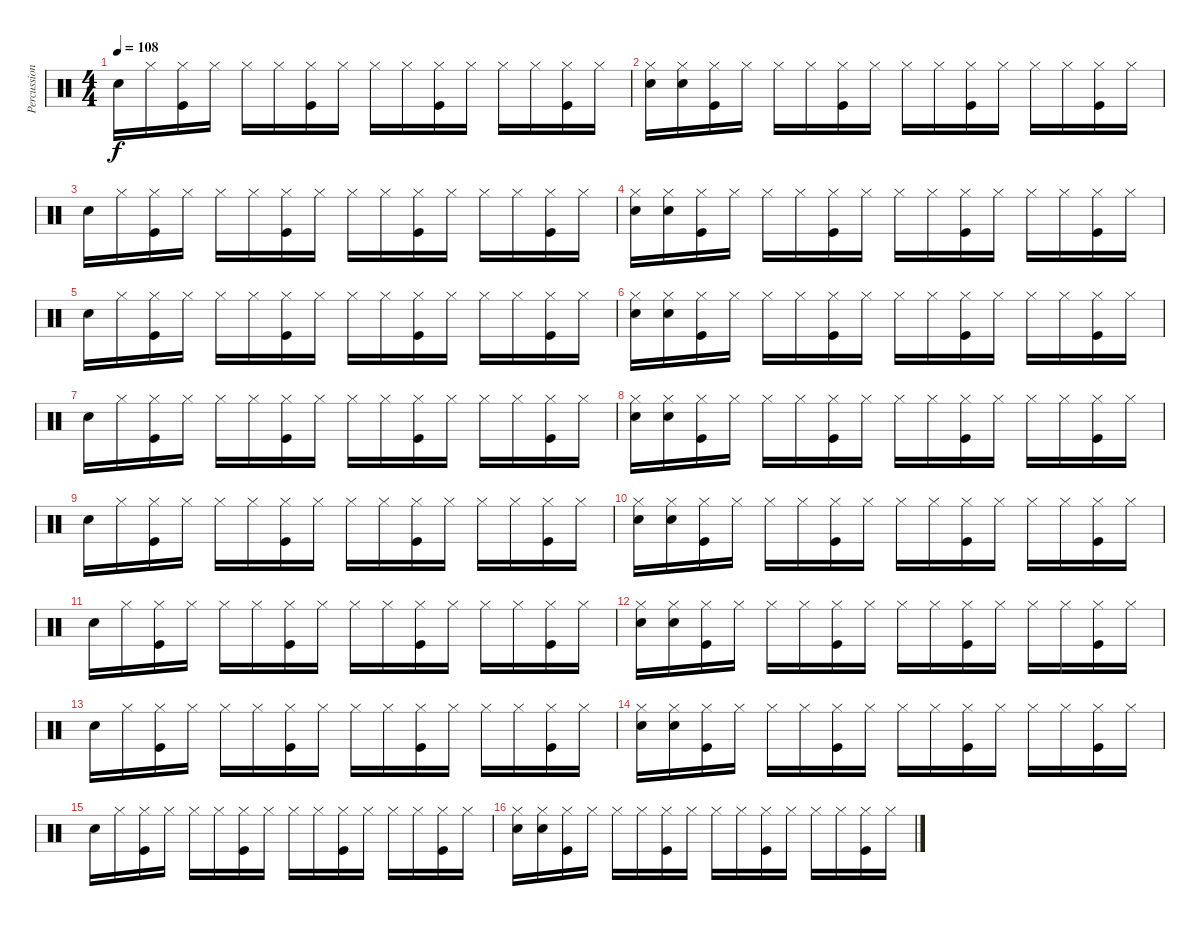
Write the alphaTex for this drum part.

\track ("Percussions" "Percussion") {instrument percussion}
\staff {score}
\articulation defaults
\ts (4 4)
\tempo 108
\clef neutral
\ks c "Electric Snare (hit)".16{dy f} "Hi-Hat (closed)".16
("Hi-Hat (closed)" "Kick (hit)").16 "Hi-Hat (closed)".16 "Hi-Hat (closed)".16 "Hi-Hat (closed)".16 ("Hi-Hat (closed)" "Kick (hit)").16 "Hi-Hat (closed)".16 "Hi-Hat (closed)".16 "Hi-Hat (closed)".16 ("Hi-Hat (closed)" "Kick (hit)").16 "Hi-Hat (closed)".16 "Hi-Hat (closed)".16 "Hi-Hat (closed)".16 ("Hi-Hat (closed)" "Kick (hit)").16 "Hi-Hat (closed)".16 |
("Hi-Hat (closed)" "Electric Snare (hit)").16 ("Hi-Hat (closed)" "Electric Snare (hit)").16 ("Hi-Hat (closed)" "Kick (hit)").16 "Hi-Hat (closed)".16 "Hi-Hat (closed)".16 "Hi-Hat (closed)".16 ("Hi-Hat (closed)" "Kick (hit)").16 "Hi-Hat (closed)".16 "Hi-Hat (closed)".16 "Hi-Hat (closed)".16 ("Hi-Hat (closed)" "Kick (hit)").16 "Hi-Hat (closed)".16 "Hi-Hat (closed)".16 "Hi-Hat (closed)".16 ("Hi-Hat (closed)" "Kick (hit)").16 "Hi-Hat (closed)".16 |
"Electric Snare (hit)".16 "Hi-Hat (closed)".16 ("Hi-Hat (closed)" "Kick (hit)").16 "Hi-Hat (closed)".16 "Hi-Hat (closed)".16 "Hi-Hat (closed)".16 ("Hi-Hat (closed)" "Kick (hit)").16 "Hi-Hat (closed)".16 "Hi-Hat (closed)".16 "Hi-Hat (closed)".16 ("Hi-Hat (closed)" "Kick (hit)").16 "Hi-Hat (closed)".16 "Hi-Hat (closed)".16 "Hi-Hat (closed)".16 ("Hi-Hat (closed)" "Kick (hit)").16 "Hi-Hat (closed)".16 |
("Hi-Hat (closed)" "Electric Snare (hit)").16 ("Hi-Hat (closed)" "Electric Snare (hit)").16 ("Hi-Hat (closed)" "Kick (hit)").16 "Hi-Hat (closed)".16 "Hi-Hat (closed)".16 "Hi-Hat (closed)".16 ("Hi-Hat (closed)" "Kick (hit)").16 "Hi-Hat (closed)".16 "Hi-Hat (closed)".16 "Hi-Hat (closed)".16 ("Hi-Hat (closed)" "Kick (hit)").16 "Hi-Hat (closed)".16 "Hi-Hat (closed)".16 "Hi-Hat (closed)".16 ("Hi-Hat (closed)" "Kick (hit)").16 "Hi-Hat (closed)".16 |
"Electric Snare (hit)".16 "Hi-Hat (closed)".16 ("Hi-Hat (closed)" "Kick (hit)").16 "Hi-Hat (closed)".16 "Hi-Hat (closed)".16 "Hi-Hat (closed)".16 ("Hi-Hat (closed)" "Kick (hit)").16 "Hi-Hat (closed)".16 "Hi-Hat (closed)".16 "Hi-Hat (closed)".16 ("Hi-Hat (closed)" "Kick (hit)").16 "Hi-Hat (closed)".16 "Hi-Hat (closed)".16 "Hi-Hat (closed)".16 ("Hi-Hat (closed)" "Kick (hit)").16 "Hi-Hat (closed)".16 |
("Hi-Hat (closed)" "Electric Snare (hit)").16 ("Hi-Hat (closed)" "Electric Snare (hit)").16 ("Hi-Hat (closed)" "Kick (hit)").16 "Hi-Hat (closed)".16 "Hi-Hat (closed)".16 "Hi-Hat (closed)".16 ("Hi-Hat (closed)" "Kick (hit)").16 "Hi-Hat (closed)".16 "Hi-Hat (closed)".16 "Hi-Hat (closed)".16 ("Hi-Hat (closed)" "Kick (hit)").16 "Hi-Hat (closed)".16 "Hi-Hat (closed)".16 "Hi-Hat (closed)".16 ("Hi-Hat (closed)" "Kick (hit)").16 "Hi-Hat (closed)".16 |
"Electric Snare (hit)".16 "Hi-Hat (closed)".16 ("Hi-Hat (closed)" "Kick (hit)").16 "Hi-Hat (closed)".16 "Hi-Hat (closed)".16 "Hi-Hat (closed)".16 ("Hi-Hat (closed)" "Kick (hit)").16 "Hi-Hat (closed)".16 "Hi-Hat (closed)".16 "Hi-Hat (closed)".16 ("Hi-Hat (closed)" "Kick (hit)").16 "Hi-Hat (closed)".16 "Hi-Hat (closed)".16 "Hi-Hat (closed)".16 ("Hi-Hat (closed)" "Kick (hit)").16 "Hi-Hat (closed)".16 |
("Hi-Hat (closed)" "Electric Snare (hit)").16 ("Hi-Hat (closed)" "Electric Snare (hit)").16 ("Hi-Hat (closed)" "Kick (hit)").16 "Hi-Hat (closed)".16 "Hi-Hat (closed)".16 "Hi-Hat (closed)".16 ("Hi-Hat (closed)" "Kick (hit)").16 "Hi-Hat (closed)".16 "Hi-Hat (closed)".16 "Hi-Hat (closed)".16 ("Hi-Hat (closed)" "Kick (hit)").16 "Hi-Hat (closed)".16 "Hi-Hat (closed)".16 "Hi-Hat (closed)".16 ("Hi-Hat (closed)" "Kick (hit)").16 "Hi-Hat (closed)".16 |
"Electric Snare (hit)".16 "Hi-Hat (closed)".16 ("Hi-Hat (closed)" "Kick (hit)").16 "Hi-Hat (closed)".16 "Hi-Hat (closed)".16 "Hi-Hat (closed)".16 ("Hi-Hat (closed)" "Kick (hit)").16 "Hi-Hat (closed)".16 "Hi-Hat (closed)".16 "Hi-Hat (closed)".16 ("Hi-Hat (closed)" "Kick (hit)").16 "Hi-Hat (closed)".16 "Hi-Hat (closed)".16 "Hi-Hat (closed)".16 ("Hi-Hat (closed)" "Kick (hit)").16 "Hi-Hat (closed)".16 |
("Hi-Hat (closed)" "Electric Snare (hit)").16 ("Hi-Hat (closed)" "Electric Snare (hit)").16 ("Hi-Hat (closed)" "Kick (hit)").16 "Hi-Hat (closed)".16 "Hi-Hat (closed)".16 "Hi-Hat (closed)".16 ("Hi-Hat (closed)" "Kick (hit)").16 "Hi-Hat (closed)".16 "Hi-Hat (closed)".16 "Hi-Hat (closed)".16 ("Hi-Hat (closed)" "Kick (hit)").16 "Hi-Hat (closed)".16 "Hi-Hat (closed)".16 "Hi-Hat (closed)".16 ("Hi-Hat (closed)" "Kick (hit)").16 "Hi-Hat (closed)".16 |
"Electric Snare (hit)".16 "Hi-Hat (closed)".16 ("Hi-Hat (closed)" "Kick (hit)").16 "Hi-Hat (closed)".16 "Hi-Hat (closed)".16 "Hi-Hat (closed)".16 ("Hi-Hat (closed)" "Kick (hit)").16 "Hi-Hat (closed)".16 "Hi-Hat (closed)".16 "Hi-Hat (closed)".16 ("Hi-Hat (closed)" "Kick (hit)").16 "Hi-Hat (closed)".16 "Hi-Hat (closed)".16 "Hi-Hat (closed)".16 ("Hi-Hat (closed)" "Kick (hit)").16 "Hi-Hat (closed)".16 |
("Hi-Hat (closed)" "Electric Snare (hit)").16 ("Hi-Hat (closed)" "Electric Snare (hit)").16 ("Hi-Hat (closed)" "Kick (hit)").16 "Hi-Hat (closed)".16 "Hi-Hat (closed)".16 "Hi-Hat (closed)".16 ("Hi-Hat (closed)" "Kick (hit)").16 "Hi-Hat (closed)".16 "Hi-Hat (closed)".16 "Hi-Hat (closed)".16 ("Hi-Hat (closed)" "Kick (hit)").16 "Hi-Hat (closed)".16 "Hi-Hat (closed)".16 "Hi-Hat (closed)".16 ("Hi-Hat (closed)" "Kick (hit)").16 "Hi-Hat (closed)".16 |
"Electric Snare (hit)".16 "Hi-Hat (closed)".16 ("Hi-Hat (closed)" "Kick (hit)").16 "Hi-Hat (closed)".16 "Hi-Hat (closed)".16 "Hi-Hat (closed)".16 ("Hi-Hat (closed)" "Kick (hit)").16 "Hi-Hat (closed)".16 "Hi-Hat (closed)".16 "Hi-Hat (closed)".16 ("Hi-Hat (closed)" "Kick (hit)").16 "Hi-Hat (closed)".16 "Hi-Hat (closed)".16 "Hi-Hat (closed)".16 ("Hi-Hat (closed)" "Kick (hit)").16 "Hi-Hat (closed)".16 |
("Hi-Hat (closed)" "Electric Snare (hit)").16 ("Hi-Hat (closed)" "Electric Snare (hit)").16 ("Hi-Hat (closed)" "Kick (hit)").16 "Hi-Hat (closed)".16 "Hi-Hat (closed)".16 "Hi-Hat (closed)".16 ("Hi-Hat (closed)" "Kick (hit)").16 "Hi-Hat (closed)".16 "Hi-Hat (closed)".16 "Hi-Hat (closed)".16 ("Hi-Hat (closed)" "Kick (hit)").16 "Hi-Hat (closed)".16 "Hi-Hat (closed)".16 "Hi-Hat (closed)".16 ("Hi-Hat (closed)" "Kick (hit)").16 "Hi-Hat (closed)".16 |
"Electric Snare (hit)".16 "Hi-Hat (closed)".16 ("Hi-Hat (closed)" "Kick (hit)").16 "Hi-Hat (closed)".16 "Hi-Hat (closed)".16 "Hi-Hat (closed)".16 ("Hi-Hat (closed)" "Kick (hit)").16 "Hi-Hat (closed)".16 "Hi-Hat (closed)".16 "Hi-Hat (closed)".16 ("Hi-Hat (closed)" "Kick (hit)").16 "Hi-Hat (closed)".16 "Hi-Hat (closed)".16 "Hi-Hat (closed)".16 ("Hi-Hat (closed)" "Kick (hit)").16 "Hi-Hat (closed)".16 |
("Hi-Hat (closed)" "Electric Snare (hit)").16 ("Hi-Hat (closed)" "Electric Snare (hit)").16 ("Hi-Hat (closed)" "Kick (hit)").16 "Hi-Hat (closed)".16 "Hi-Hat (closed)".16 "Hi-Hat (closed)".16 ("Hi-Hat (closed)" "Kick (hit)").16 "Hi-Hat (closed)".16 "Hi-Hat (closed)".16 "Hi-Hat (closed)".16 ("Hi-Hat (closed)" "Kick (hit)").16 "Hi-Hat (closed)".16 "Hi-Hat (closed)".16 "Hi-Hat (closed)".16 ("Hi-Hat (closed)" "Kick (hit)").16 "Hi-Hat (closed)".16
